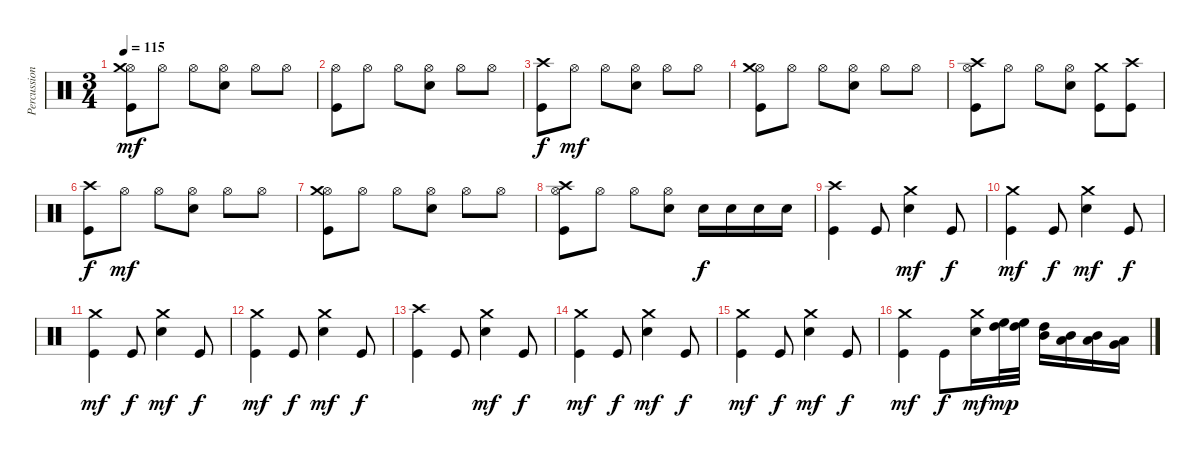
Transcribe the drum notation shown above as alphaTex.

\track ("Percussions" "Percussion") {instrument percussion}
\staff {score}
\articulation defaults
\ts (3 4)
\tempo 115
\clef neutral
\ks c
("Kick (hit)" "Hi-Hat (open)" "Crash medium (hit)").8{dy mf} "Hi-Hat (open)".8 "Hi-Hat (open)".8 ("Electric Snare (hit)" "Hi-Hat (open)").8 "Hi-Hat (open)".8 "Hi-Hat (open)".8 |
("Kick (hit)" "Hi-Hat (open)").8 "Hi-Hat (open)".8 "Hi-Hat (open)".8 ("Electric Snare (hit)" "Hi-Hat (open)").8 "Hi-Hat (open)".8 "Hi-Hat (open)".8 |
("Kick (hit)" "Crash high (hit)").8{dy f} "Hi-Hat (open)".8{dy mf} "Hi-Hat (open)".8 ("Electric Snare (hit)" "Hi-Hat (open)").8 "Hi-Hat (open)".8 "Hi-Hat (open)".8 |
("Kick (hit)" "Hi-Hat (open)" "Crash medium (hit)").8 "Hi-Hat (open)".8 "Hi-Hat (open)".8 ("Electric Snare (hit)" "Hi-Hat (open)").8 "Hi-Hat (open)".8 "Hi-Hat (open)".8 |
("Kick (hit)" "Hi-Hat (open)" "Crash high (hit)").8 "Hi-Hat (open)".8 "Hi-Hat (open)".8 ("Electric Snare (hit)" "Hi-Hat (open)").8 ("Kick (hit)" "Crash medium (hit)").8 ("Kick (hit)" "Crash high (hit)").8 |
("Kick (hit)" "Crash high (hit)").8{dy f} "Hi-Hat (open)".8{dy mf} "Hi-Hat (open)".8 ("Electric Snare (hit)" "Hi-Hat (open)").8 "Hi-Hat (open)".8 "Hi-Hat (open)".8 |
("Kick (hit)" "Hi-Hat (open)" "Crash medium (hit)").8 "Hi-Hat (open)".8 "Hi-Hat (open)".8 ("Electric Snare (hit)" "Hi-Hat (open)").8 "Hi-Hat (open)".8 "Hi-Hat (open)".8 |
("Kick (hit)" "Hi-Hat (open)" "Crash high (hit)").8 "Hi-Hat (open)".8 "Hi-Hat (open)".8 ("Electric Snare (hit)" "Hi-Hat (open)").8 "Electric Snare (hit)".16{dy f} "Electric Snare (hit)".16 "Electric Snare (hit)".16 "Electric Snare (hit)".16 |
("Kick (hit)" "Crash high (hit)").4 "Kick (hit)".8 ("Electric Snare (hit)" "Crash medium (hit)").4{dy mf} "Kick (hit)".8{dy f} |
("Kick (hit)" "Crash medium (hit)").4{dy mf} "Kick (hit)".8{dy f} ("Electric Snare (hit)" "Crash medium (hit)").4{dy mf} "Kick (hit)".8{dy f} |
("Kick (hit)" "Crash medium (hit)").4{dy mf} "Kick (hit)".8{dy f} ("Electric Snare (hit)" "Crash medium (hit)").4{dy mf} "Kick (hit)".8{dy f} |
("Kick (hit)" "Crash medium (hit)").4{dy mf} "Kick (hit)".8{dy f} ("Electric Snare (hit)" "Crash medium (hit)").4{dy mf} "Kick (hit)".8{dy f} |
("Kick (hit)" "Crash high (hit)").4 "Kick (hit)".8 ("Electric Snare (hit)" "Crash medium (hit)").4{dy mf} "Kick (hit)".8{dy f} |
("Kick (hit)" "Crash medium (hit)").4{dy mf} "Kick (hit)".8{dy f} ("Electric Snare (hit)" "Crash medium (hit)").4{dy mf} "Kick (hit)".8{dy f} |
("Kick (hit)" "Crash medium (hit)").4{dy mf} "Kick (hit)".8{dy f} ("Electric Snare (hit)" "Crash medium (hit)").4{dy mf} "Kick (hit)".8{dy f} |
("Kick (hit)" "Crash medium (hit)").4{dy mf} "Kick (hit)".8{dy f} ("Electric Snare (hit)" "Crash medium (hit)").16{dy mf} ("High Tom (hit)" "High Floor Tom (hit)").32{dy mp} ("High Tom (hit)" "High Floor Tom (hit)").32 ("Mid Tom (hit)" "High Tom (hit)").16 ("Low Tom (hit)" "Mid Tom (hit)").16 ("Low Tom (hit)" "Mid Tom (hit)").16 ("Very Low Tom (hit)" "Low Tom (hit)").16
